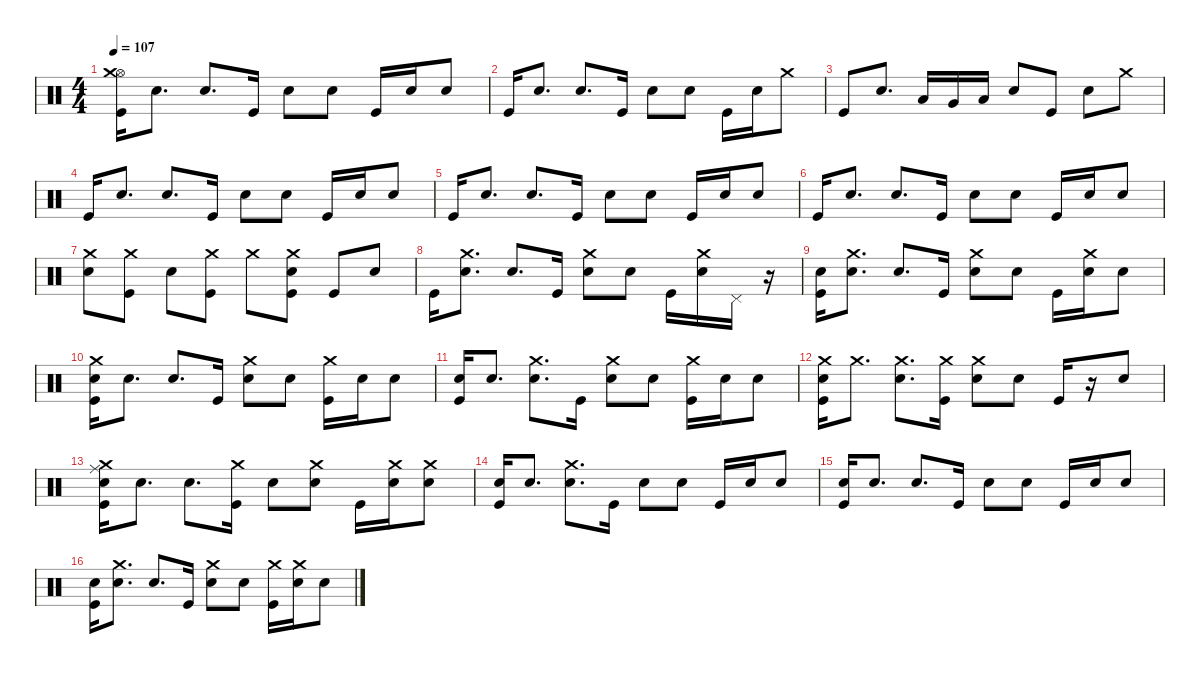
\defaultSystemsLayout 4
\hideDynamics
\bracketExtendMode nobrackets
\singleTrackTrackNamePolicy hidden
\multiTrackTrackNamePolicy hidden
\firstSystemTrackNameMode fullname
\firstSystemTrackNameOrientation horizontal
\otherSystemsTrackNameOrientation horizontal
\track ("Mitch" "drm.") {instrument percussion}
\staff {score}
\articulation defaults
\ts (4 4)
\tempo 107
\clef neutral
\ks c
("Hi-Hat (open)" "Crash medium (hit)" "Kick (hit)").16{dy f beam Down} "Snare (hit) 2".8{d beam Down} "Snare (hit) 2".8{d beam Up} "Kick (hit)".16{beam Up} "Snare (hit) 2".8{beam Down} "Snare (hit) 2".8{beam Down} "Kick (hit)".16{beam Up} "Snare (hit) 2".16{beam Up} "Snare (hit) 2".8{beam Up} |
"Kick (hit)".16{beam Up} "Snare (hit) 2".8{d beam Up} "Snare (hit) 2".8{d beam Up} "Kick (hit)".16{beam Up} "Snare (hit) 2".8{beam Down} "Snare (hit) 2".8{beam Down} "Kick (hit)".16{beam Down} "Snare (hit) 2".16{beam Down} "Crash medium (hit)".8{beam Down} |
"Kick (hit)".8{beam Up} "Snare (hit) 2".8{d beam Up} "Low Tom (hit)".16{beam Up} "Very Low Tom (hit)".16{beam Up} "Low Floor Tom (hit)".16{beam Up} "Snare (hit) 2".8{beam Up} "Kick (hit)".8{beam Up} "Snare (hit) 2".8{beam Down} "Crash medium (hit)".8{beam Down} |
"Kick (hit)".16{beam Up} "Snare (hit) 2".8{d beam Up} "Snare (hit) 2".8{d beam Up} "Kick (hit)".16{beam Up} "Snare (hit) 2".8{beam Down} "Snare (hit) 2".8{beam Down} "Kick (hit)".16{beam Up} "Snare (hit) 2".16{beam Up} "Snare (hit) 2".8{beam Up} |
"Kick (hit)".16{beam Up} "Snare (hit) 2".8{d beam Up} "Snare (hit) 2".8{d beam Up} "Kick (hit)".16{beam Up} "Snare (hit) 2".8{beam Down} "Snare (hit) 2".8{beam Down} "Kick (hit)".16{beam Up} "Snare (hit) 2".16{beam Up} "Snare (hit) 2".8{beam Up} |
"Kick (hit)".16{beam Up} "Snare (hit) 2".8{d beam Up} "Snare (hit) 2".8{d beam Up} "Kick (hit)".16{beam Up} "Snare (hit) 2".8{beam Down} "Snare (hit) 2".8{beam Down} "Kick (hit)".16{beam Up} "Snare (hit) 2".16{beam Up} "Snare (hit) 2".8{beam Up} |
("Snare (hit) 2" "Crash medium (hit)").8{beam Down} ("Crash medium (hit)" "Kick (hit)").8{beam Down} "Snare (hit) 2".8{beam Down} ("Crash medium (hit)" "Kick (hit)").8{beam Down} "Crash medium (hit)".8{beam Down} ("Snare (hit) 2" "Crash medium (hit)" "Kick (hit)").8{beam Down} "Kick (hit)".8{beam Up} "Snare (hit) 2".8{beam Up} |
"Kick (hit)".16{beam Down} ("Snare (hit) 2" "Crash medium (hit)").8{d beam Down} "Snare (hit) 2".8{d beam Up} "Kick (hit)".16{beam Up} ("Snare (hit) 2" "Crash medium (hit)").8{beam Down} "Snare (hit) 2".8{beam Down} "Kick (hit)".16{beam Down} ("Snare (hit) 2" "Crash medium (hit)").16{beam Down} "Pedal Hi-Hat (hit)".16{beam Down} r.16{beam Down} |
("Snare (hit) 2" "Kick (hit)").16{beam Down} ("Snare (hit) 2" "Crash medium (hit)").8{d beam Down} "Snare (hit) 2".8{d beam Up} "Kick (hit)".16{beam Up} ("Snare (hit) 2" "Crash medium (hit)").8{beam Down} "Snare (hit) 2".8{beam Down} "Kick (hit)".16{beam Down} ("Snare (hit) 2" "Crash medium (hit)").16{beam Down} "Snare (hit) 2".8{beam Down} |
("Snare (hit) 2" "Crash medium (hit)" "Kick (hit)").16{beam Down} "Snare (hit) 2".8{d beam Down} "Snare (hit) 2".8{d beam Up} "Kick (hit)".16{beam Up} ("Snare (hit) 2" "Crash medium (hit)").8{beam Down} "Snare (hit) 2".8{beam Down} ("Crash medium (hit)" "Kick (hit)").16{beam Down} "Snare (hit) 2".16{beam Down} "Snare (hit) 2".8{beam Down} |
("Snare (hit) 2" "Kick (hit)").16{beam Up} "Snare (hit) 2".8{d beam Up} ("Snare (hit) 2" "Crash medium (hit)").8{d beam Down} "Kick (hit)".16{beam Down} ("Snare (hit) 2" "Crash medium (hit)").8{beam Down} "Snare (hit) 2".8{beam Down} ("Crash medium (hit)" "Kick (hit)").16{beam Down} "Snare (hit) 2".16{beam Down} "Snare (hit) 2".8{beam Down} |
("Snare (hit) 2" "Crash medium (hit)" "Kick (hit)").16{beam Down} "Crash medium (hit)".8{d beam Down} ("Snare (hit) 2" "Crash medium (hit)").8{d beam Down} ("Crash medium (hit)" "Kick (hit)").16{beam Down} ("Snare (hit) 2" "Crash medium (hit)").8{beam Down} "Snare (hit) 2".8{beam Down} "Kick (hit)".16{beam Up} r.16{beam Up} "Snare (hit) 2".8{beam Up} |
("Ride (middle)" "Snare (hit) 2" "Crash medium (hit)" "Kick (hit)").16{beam Down} "Snare (hit) 2".8{d beam Down} "Snare (hit) 2".8{d beam Down} ("Crash medium (hit)" "Kick (hit)").16{beam Down} "Snare (hit) 2".8{beam Down} ("Snare (hit) 2" "Crash medium (hit)").8{beam Down} "Kick (hit)".16{beam Down} ("Snare (hit) 2" "Crash medium (hit)").16{beam Down} ("Snare (hit) 2" "Crash medium (hit)").8{beam Down} |
("Snare (hit) 2" "Kick (hit)").16{beam Up} "Snare (hit) 2".8{d beam Up} ("Snare (hit) 2" "Crash medium (hit)").8{d beam Down} "Kick (hit)".16{beam Down} "Snare (hit) 2".8{beam Down} "Snare (hit) 2".8{beam Down} "Kick (hit)".16{beam Up} "Snare (hit) 2".16{beam Up} "Snare (hit) 2".8{beam Up} |
("Snare (hit) 2" "Kick (hit)").16{beam Up} "Snare (hit) 2".8{d beam Up} "Snare (hit) 2".8{d beam Up} "Kick (hit)".16{beam Up} "Snare (hit) 2".8{beam Down} "Snare (hit) 2".8{beam Down} "Kick (hit)".16{beam Up} "Snare (hit) 2".16{beam Up} "Snare (hit) 2".8{beam Up} |
("Snare (hit) 2" "Kick (hit)").16{beam Down} ("Snare (hit) 2" "Crash medium (hit)").8{d beam Down} "Snare (hit) 2".8{d beam Up} "Kick (hit)".16{beam Up} ("Snare (hit) 2" "Crash medium (hit)").8{beam Down} "Snare (hit) 2".8{beam Down} ("Crash medium (hit)" "Kick (hit)").16{beam Down} ("Snare (hit) 2" "Crash medium (hit)").16{beam Down} "Snare (hit) 2".8{beam Down}
